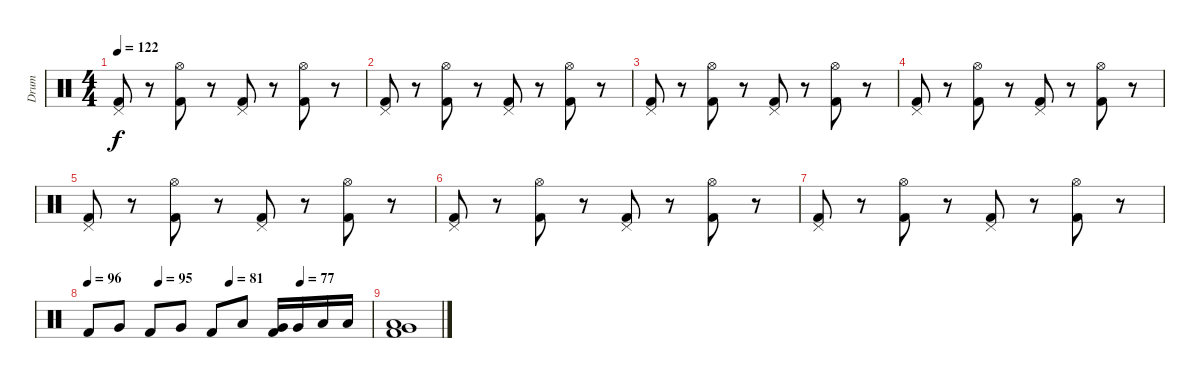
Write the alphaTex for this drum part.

\track ("Drum" "Drum") {instrument percussion}
\staff {score}
\articulation defaults
\ts (4 4)
\tempo 122
\clef neutral
\ks c
("Pedal Hi-Hat (hit)" "Kick (hit) 2").8{dy f} r.8 ("Hi-Hat (open)" "Kick (hit) 2").8 r.8 ("Pedal Hi-Hat (hit)" "Kick (hit) 2").8 r.8 ("Hi-Hat (open)" "Kick (hit) 2").8 r.8 |
("Pedal Hi-Hat (hit)" "Kick (hit) 2").8 r.8 ("Hi-Hat (open)" "Kick (hit) 2").8 r.8 ("Pedal Hi-Hat (hit)" "Kick (hit) 2").8 r.8 ("Hi-Hat (open)" "Kick (hit) 2").8 r.8 |
("Pedal Hi-Hat (hit)" "Kick (hit) 2").8 r.8 ("Hi-Hat (open)" "Kick (hit) 2").8 r.8 ("Pedal Hi-Hat (hit)" "Kick (hit) 2").8 r.8 ("Hi-Hat (open)" "Kick (hit) 2").8 r.8 |
("Pedal Hi-Hat (hit)" "Kick (hit) 2").8 r.8 ("Hi-Hat (open)" "Kick (hit) 2").8 r.8 ("Pedal Hi-Hat (hit)" "Kick (hit) 2").8 r.8 ("Hi-Hat (open)" "Kick (hit) 2").8 r.8 |
("Pedal Hi-Hat (hit)" "Kick (hit) 2").8 r.8 ("Hi-Hat (open)" "Kick (hit) 2").8 r.8 ("Pedal Hi-Hat (hit)" "Kick (hit) 2").8 r.8 ("Hi-Hat (open)" "Kick (hit) 2").8 r.8 |
("Pedal Hi-Hat (hit)" "Kick (hit) 2").8 r.8 ("Hi-Hat (open)" "Kick (hit) 2").8 r.8 ("Pedal Hi-Hat (hit)" "Kick (hit) 2").8 r.8 ("Hi-Hat (open)" "Kick (hit) 2").8 r.8 |
("Pedal Hi-Hat (hit)" "Kick (hit) 2").8 r.8 ("Hi-Hat (open)" "Kick (hit) 2").8 r.8 ("Pedal Hi-Hat (hit)" "Kick (hit) 2").8 r.8 ("Hi-Hat (open)" "Kick (hit) 2").8 r.8 |
\tempo 96
\tempo (95 0.25)
\tempo (81 0.5)
\tempo (77 0.75)
"Kick (hit) 2".8 "Very Low Tom (hit)".8 "Kick (hit) 2".8 "Very Low Tom (hit)".8 "Kick (hit) 2".8 "Low Tom (hit)".8 ("Very Low Tom (hit)" "Kick (hit) 2").16 "Very Low Tom (hit)".16 "Low Tom (hit)".16 "Low Tom (hit)".16 |
("Very Low Tom (hit)" "Low Tom (hit)" "Kick (hit) 2").1
